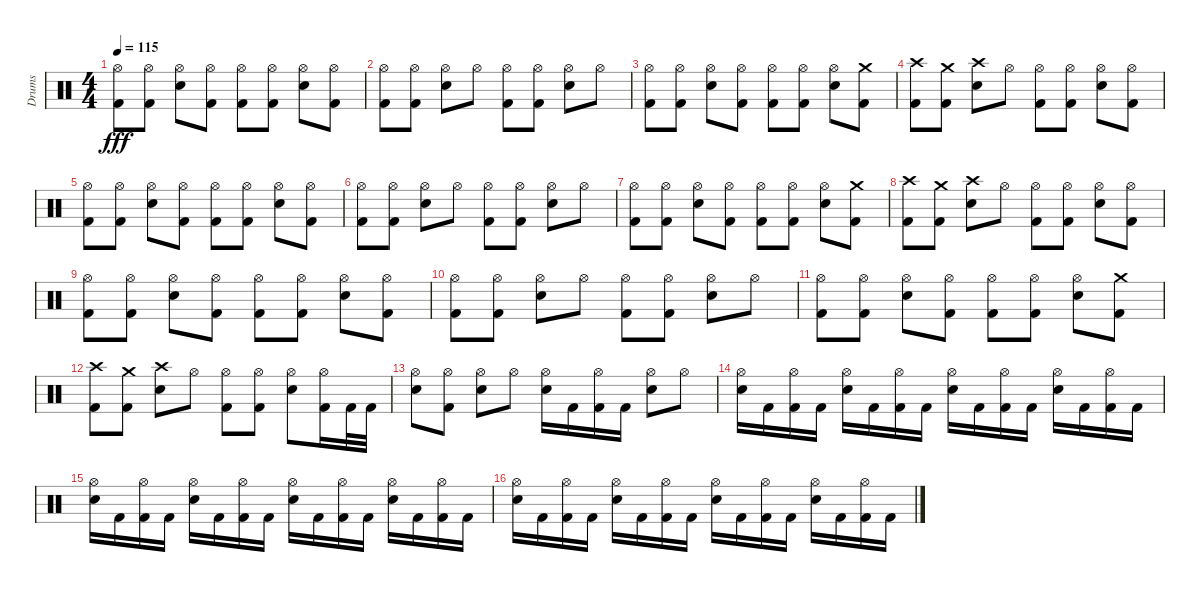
\track ("Drums" "Drums") {instrument percussion}
\staff {score}
\articulation defaults
\ts (4 4)
\tempo 115
\clef neutral
\ks c
("Hi-Hat (open)" "Kick (hit) 2").8{dy fff} ("Hi-Hat (open)" "Kick (hit) 2").8 ("Hi-Hat (open)" "Electric Snare (hit)").8 ("Hi-Hat (open)" "Kick (hit) 2").8 ("Hi-Hat (open)" "Kick (hit) 2").8 ("Hi-Hat (open)" "Kick (hit) 2").8 ("Hi-Hat (open)" "Electric Snare (hit)").8 ("Hi-Hat (open)" "Kick (hit) 2").8 |
("Kick (hit) 2" "Hi-Hat (open)").8 ("Hi-Hat (open)" "Kick (hit) 2").8 ("Hi-Hat (open)" "Electric Snare (hit)").8 "Hi-Hat (open)".8 ("Hi-Hat (open)" "Kick (hit) 2").8 ("Hi-Hat (open)" "Kick (hit) 2").8 ("Hi-Hat (open)" "Electric Snare (hit)").8 "Hi-Hat (open)".8 |
("Hi-Hat (open)" "Kick (hit) 2").8 ("Hi-Hat (open)" "Kick (hit) 2").8 ("Hi-Hat (open)" "Electric Snare (hit)").8 ("Kick (hit) 2" "Hi-Hat (open)").8 ("Hi-Hat (open)" "Kick (hit) 2").8 ("Hi-Hat (open)" "Kick (hit) 2").8 ("Hi-Hat (open)" "Electric Snare (hit)").8 ("Crash medium (hit)" "Kick (hit) 2").8 |
("Kick (hit) 2" "Crash high (hit)").8 ("Crash medium (hit)" "Kick (hit) 2").8 ("Crash high (hit)" "Electric Snare (hit)").8 "Hi-Hat (open)".8 ("Hi-Hat (open)" "Kick (hit) 2").8 ("Hi-Hat (open)" "Kick (hit) 2").8 ("Hi-Hat (open)" "Electric Snare (hit)").8 ("Hi-Hat (open)" "Kick (hit) 2").8 |
("Hi-Hat (open)" "Kick (hit) 2").8 ("Hi-Hat (open)" "Kick (hit) 2").8 ("Hi-Hat (open)" "Electric Snare (hit)").8 ("Hi-Hat (open)" "Kick (hit) 2").8 ("Hi-Hat (open)" "Kick (hit) 2").8 ("Hi-Hat (open)" "Kick (hit) 2").8 ("Hi-Hat (open)" "Electric Snare (hit)").8 ("Hi-Hat (open)" "Kick (hit) 2").8 |
("Kick (hit) 2" "Hi-Hat (open)").8 ("Hi-Hat (open)" "Kick (hit) 2").8 ("Hi-Hat (open)" "Electric Snare (hit)").8 "Hi-Hat (open)".8 ("Hi-Hat (open)" "Kick (hit) 2").8 ("Hi-Hat (open)" "Kick (hit) 2").8 ("Hi-Hat (open)" "Electric Snare (hit)").8 "Hi-Hat (open)".8 |
("Hi-Hat (open)" "Kick (hit) 2").8 ("Hi-Hat (open)" "Kick (hit) 2").8 ("Hi-Hat (open)" "Electric Snare (hit)").8 ("Kick (hit) 2" "Hi-Hat (open)").8 ("Hi-Hat (open)" "Kick (hit) 2").8 ("Hi-Hat (open)" "Kick (hit) 2").8 ("Hi-Hat (open)" "Electric Snare (hit)").8 ("Crash medium (hit)" "Kick (hit) 2").8 |
("Kick (hit) 2" "Crash high (hit)").8 ("Crash medium (hit)" "Kick (hit) 2").8 ("Crash high (hit)" "Electric Snare (hit)").8 "Hi-Hat (open)".8 ("Hi-Hat (open)" "Kick (hit) 2").8 ("Hi-Hat (open)" "Kick (hit) 2").8 ("Hi-Hat (open)" "Electric Snare (hit)").8 ("Hi-Hat (open)" "Kick (hit) 2").8 |
("Hi-Hat (open)" "Kick (hit) 2").8 ("Hi-Hat (open)" "Kick (hit) 2").8 ("Hi-Hat (open)" "Electric Snare (hit)").8 ("Hi-Hat (open)" "Kick (hit) 2").8 ("Hi-Hat (open)" "Kick (hit) 2").8 ("Hi-Hat (open)" "Kick (hit) 2").8 ("Hi-Hat (open)" "Electric Snare (hit)").8 ("Hi-Hat (open)" "Kick (hit) 2").8 |
("Kick (hit) 2" "Hi-Hat (open)").8 ("Hi-Hat (open)" "Kick (hit) 2").8 ("Hi-Hat (open)" "Electric Snare (hit)").8 "Hi-Hat (open)".8 ("Hi-Hat (open)" "Kick (hit) 2").8 ("Hi-Hat (open)" "Kick (hit) 2").8 ("Hi-Hat (open)" "Electric Snare (hit)").8 "Hi-Hat (open)".8 |
("Hi-Hat (open)" "Kick (hit) 2").8 ("Hi-Hat (open)" "Kick (hit) 2").8 ("Hi-Hat (open)" "Electric Snare (hit)").8 ("Kick (hit) 2" "Hi-Hat (open)").8 ("Hi-Hat (open)" "Kick (hit) 2").8 ("Hi-Hat (open)" "Kick (hit) 2").8 ("Hi-Hat (open)" "Electric Snare (hit)").8 ("Crash medium (hit)" "Kick (hit) 2").8 |
("Kick (hit) 2" "Crash high (hit)").8 ("Crash medium (hit)" "Kick (hit) 2").8 ("Crash high (hit)" "Electric Snare (hit)").8 "Hi-Hat (open)".8 ("Hi-Hat (open)" "Kick (hit) 2").8 ("Hi-Hat (open)" "Kick (hit) 2").8 ("Hi-Hat (open)" "Electric Snare (hit)").8 ("Hi-Hat (open)" "Kick (hit) 2").16 "Kick (hit) 2".32 "Kick (hit) 2".32 |
("Hi-Hat (open)" "Electric Snare (hit)").8 ("Hi-Hat (open)" "Kick (hit) 2").8 ("Hi-Hat (open)" "Electric Snare (hit)").8 "Hi-Hat (open)".8 ("Hi-Hat (open)" "Electric Snare (hit)").16 "Kick (hit) 2".16 ("Hi-Hat (open)" "Kick (hit) 2").16 "Kick (hit) 2".16 ("Hi-Hat (open)" "Electric Snare (hit)").8 "Hi-Hat (open)".8 |
("Hi-Hat (open)" "Electric Snare (hit)").16 "Kick (hit) 2".16 ("Hi-Hat (open)" "Kick (hit) 2").16 "Kick (hit) 2".16 ("Hi-Hat (open)" "Electric Snare (hit)").16 "Kick (hit) 2".16 ("Hi-Hat (open)" "Kick (hit) 2").16 "Kick (hit) 2".16 ("Hi-Hat (open)" "Electric Snare (hit)").16 "Kick (hit) 2".16 ("Hi-Hat (open)" "Kick (hit) 2").16 "Kick (hit) 2".16 ("Hi-Hat (open)" "Electric Snare (hit)").16 "Kick (hit) 2".16 ("Hi-Hat (open)" "Kick (hit) 2").16 "Kick (hit) 2".16 |
("Hi-Hat (open)" "Electric Snare (hit)").16 "Kick (hit) 2".16 ("Hi-Hat (open)" "Kick (hit) 2").16 "Kick (hit) 2".16 ("Hi-Hat (open)" "Electric Snare (hit)").16 "Kick (hit) 2".16 ("Hi-Hat (open)" "Kick (hit) 2").16 "Kick (hit) 2".16 ("Hi-Hat (open)" "Electric Snare (hit)").16 "Kick (hit) 2".16 ("Hi-Hat (open)" "Kick (hit) 2").16 "Kick (hit) 2".16 ("Hi-Hat (open)" "Electric Snare (hit)").16 "Kick (hit) 2".16 ("Hi-Hat (open)" "Kick (hit) 2").16 "Kick (hit) 2".16 |
("Hi-Hat (open)" "Electric Snare (hit)").16 "Kick (hit) 2".16 ("Hi-Hat (open)" "Kick (hit) 2").16 "Kick (hit) 2".16 ("Hi-Hat (open)" "Electric Snare (hit)").16 "Kick (hit) 2".16 ("Hi-Hat (open)" "Kick (hit) 2").16 "Kick (hit) 2".16 ("Hi-Hat (open)" "Electric Snare (hit)").16 "Kick (hit) 2".16 ("Hi-Hat (open)" "Kick (hit) 2").16 "Kick (hit) 2".16 ("Hi-Hat (open)" "Electric Snare (hit)").16 "Kick (hit) 2".16 ("Hi-Hat (open)" "Kick (hit) 2").16 "Kick (hit) 2".16
